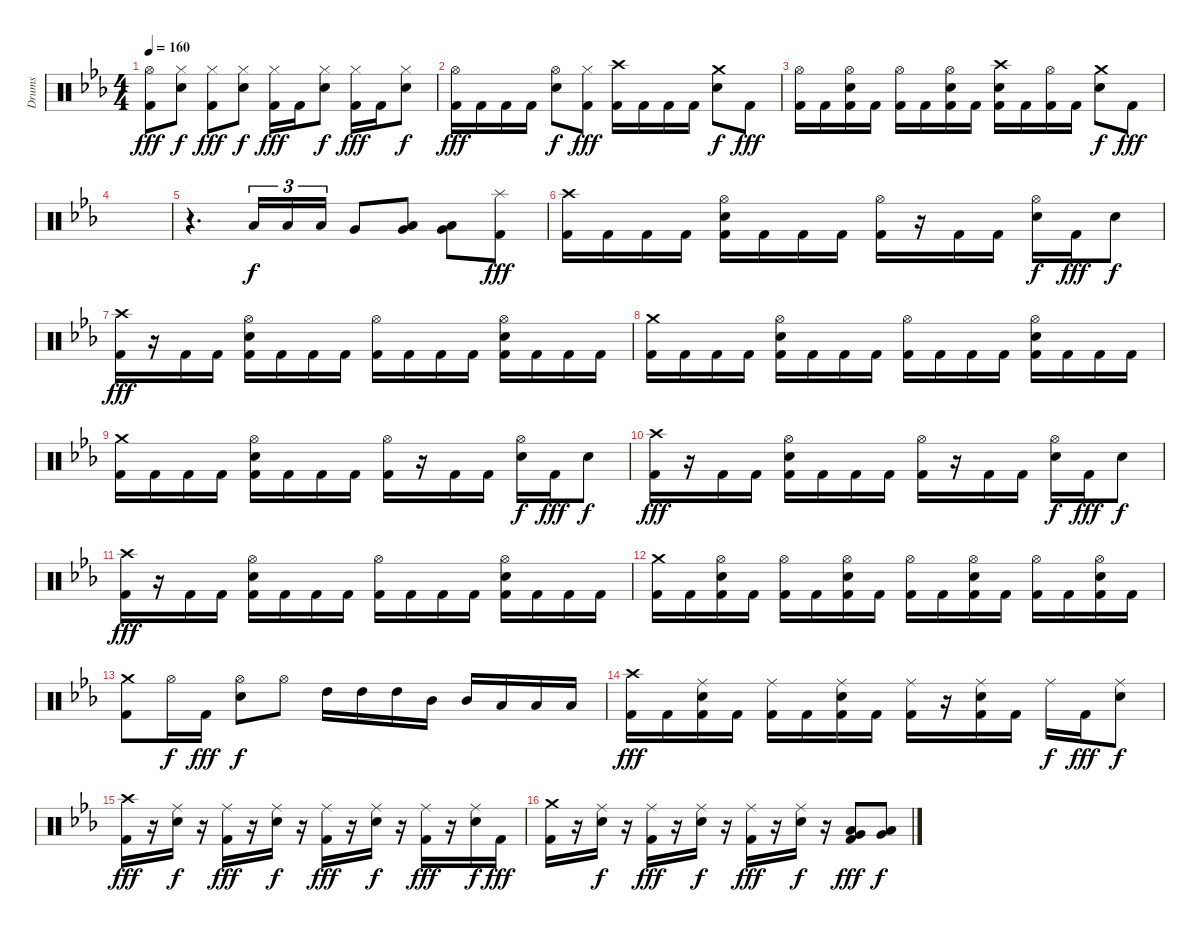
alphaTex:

\track ("Drums" "Drums") {instrument percussion}
\staff {score}
\articulation defaults
\ts (4 4)
\tempo 160
\clef neutral
\ks eb
("Hi-Hat (open)" "Kick (hit) 2").8{dy fff} ("Hi-Hat (closed)" "Electric Snare (hit)").8{dy f} ("Hi-Hat (closed)" "Kick (hit) 2").8{dy fff} ("Hi-Hat (closed)" "Electric Snare (hit)").8{dy f} ("Hi-Hat (closed)" "Kick (hit) 2").16{dy fff} "Kick (hit) 2".16 ("Hi-Hat (closed)" "Electric Snare (hit)").8{dy f} ("Hi-Hat (closed)" "Kick (hit) 2").16{dy fff} "Kick (hit) 2".16 ("Hi-Hat (closed)" "Electric Snare (hit)").8{dy f} |
("Hi-Hat (open)" "Kick (hit) 2").16{dy fff} "Kick (hit) 2".16 "Kick (hit) 2".16 "Kick (hit) 2".16 ("Hi-Hat (open)" "Electric Snare (hit)").8{dy f} ("Hi-Hat (closed)" "Kick (hit) 2").8{dy fff} ("Crash high (hit)" "Kick (hit) 2").16 "Kick (hit) 2".16 "Kick (hit) 2".16 "Kick (hit) 2".16 ("Crash medium (hit)" "Electric Snare (hit)").8{dy f} "Kick (hit) 2".8{dy fff} |
("Hi-Hat (open)" "Kick (hit) 2").16 "Kick (hit) 2".16 ("Hi-Hat (open)" "Electric Snare (hit)" "Kick (hit) 2").16 "Kick (hit) 2".16 ("Hi-Hat (open)" "Kick (hit) 2").16 "Kick (hit) 2".16 ("Hi-Hat (open)" "Electric Snare (hit)" "Kick (hit) 2").16 "Kick (hit) 2".16 ("Crash high (hit)" "Electric Snare (hit)" "Kick (hit) 2").16 "Kick (hit) 2".16 ("Hi-Hat (open)" "Kick (hit) 2").16 "Kick (hit) 2".16 ("Crash medium (hit)" "Electric Snare (hit)").8{dy f} "Kick (hit) 2".8{dy fff} |
|
r.4{d} "Low Tom (hit)".16{tu (3 2) dy f} "Low Tom (hit)".16{tu (3 2)} "Low Tom (hit)".16{tu (3 2)} "Very Low Tom (hit)".8 ("Very Low Tom (hit)" "Low Floor Tom (hit)").8 ("Very Low Tom (hit)" "Low Floor Tom (hit)").8 ("Splash (hit)" "Kick (hit) 2").8{dy fff} |
("Crash high (hit)" "Kick (hit) 2").16 "Kick (hit) 2".16 "Kick (hit) 2".16 "Kick (hit) 2".16 ("Hi-Hat (open)" "Electric Snare (hit)" "Kick (hit) 2").16 "Kick (hit) 2".16 "Kick (hit) 2".16 "Kick (hit) 2".16 ("Hi-Hat (open)" "Kick (hit) 2").16 r.16 "Kick (hit) 2".16 "Kick (hit) 2".16 ("Hi-Hat (open)" "Electric Snare (hit)").16{dy f} "Kick (hit) 2".16{dy fff} "Electric Snare (hit)".8{dy f} |
("Crash high (hit)" "Kick (hit) 2").16{dy fff} r.16 "Kick (hit) 2".16 "Kick (hit) 2".16 ("Hi-Hat (open)" "Electric Snare (hit)" "Kick (hit) 2").16 "Kick (hit) 2".16 "Kick (hit) 2".16 "Kick (hit) 2".16 ("Hi-Hat (open)" "Kick (hit) 2").16 "Kick (hit) 2".16 "Kick (hit) 2".16 "Kick (hit) 2".16 ("Hi-Hat (open)" "Electric Snare (hit)" "Kick (hit) 2").16 "Kick (hit) 2".16 "Kick (hit) 2".16 "Kick (hit) 2".16 |
("Crash medium (hit)" "Kick (hit) 2").16 "Kick (hit) 2".16 "Kick (hit) 2".16 "Kick (hit) 2".16 ("Hi-Hat (open)" "Electric Snare (hit)" "Kick (hit) 2").16 "Kick (hit) 2".16 "Kick (hit) 2".16 "Kick (hit) 2".16 ("Hi-Hat (open)" "Kick (hit) 2").16 "Kick (hit) 2".16 "Kick (hit) 2".16 "Kick (hit) 2".16 ("Hi-Hat (open)" "Electric Snare (hit)" "Kick (hit) 2").16 "Kick (hit) 2".16 "Kick (hit) 2".16 "Kick (hit) 2".16 |
("Crash medium (hit)" "Kick (hit) 2").16 "Kick (hit) 2".16 "Kick (hit) 2".16 "Kick (hit) 2".16 ("Hi-Hat (open)" "Electric Snare (hit)" "Kick (hit) 2").16 "Kick (hit) 2".16 "Kick (hit) 2".16 "Kick (hit) 2".16 ("Hi-Hat (open)" "Kick (hit) 2").16 r.16 "Kick (hit) 2".16 "Kick (hit) 2".16 ("Hi-Hat (open)" "Electric Snare (hit)").16{dy f} "Kick (hit) 2".16{dy fff} "Electric Snare (hit)".8{dy f} |
("Crash high (hit)" "Kick (hit) 2").16{dy fff} r.16 "Kick (hit) 2".16 "Kick (hit) 2".16 ("Hi-Hat (open)" "Electric Snare (hit)" "Kick (hit) 2").16 "Kick (hit) 2".16 "Kick (hit) 2".16 "Kick (hit) 2".16 ("Hi-Hat (open)" "Kick (hit) 2").16 r.16 "Kick (hit) 2".16 "Kick (hit) 2".16 ("Hi-Hat (open)" "Electric Snare (hit)").16{dy f} "Kick (hit) 2".16{dy fff} "Electric Snare (hit)".8{dy f} |
("Crash high (hit)" "Kick (hit) 2").16{dy fff} r.16 "Kick (hit) 2".16 "Kick (hit) 2".16 ("Hi-Hat (open)" "Electric Snare (hit)" "Kick (hit) 2").16 "Kick (hit) 2".16 "Kick (hit) 2".16 "Kick (hit) 2".16 ("Hi-Hat (open)" "Kick (hit) 2").16 "Kick (hit) 2".16 "Kick (hit) 2".16 "Kick (hit) 2".16 ("Hi-Hat (open)" "Electric Snare (hit)" "Kick (hit) 2").16 "Kick (hit) 2".16 "Kick (hit) 2".16 "Kick (hit) 2".16 |
("Crash medium (hit)" "Kick (hit) 2").16 "Kick (hit) 2".16 ("Hi-Hat (open)" "Electric Snare (hit)" "Kick (hit) 2").16 "Kick (hit) 2".16 ("Hi-Hat (open)" "Kick (hit) 2").16 "Kick (hit) 2".16 ("Hi-Hat (open)" "Electric Snare (hit)" "Kick (hit) 2").16 "Kick (hit) 2".16 ("Hi-Hat (open)" "Kick (hit) 2").16 "Kick (hit) 2".16 ("Hi-Hat (open)" "Electric Snare (hit)" "Kick (hit) 2").16 "Kick (hit) 2".16 ("Hi-Hat (open)" "Kick (hit) 2").16 "Kick (hit) 2".16 ("Hi-Hat (open)" "Electric Snare (hit)" "Kick (hit) 2").16 "Kick (hit) 2".16 |
("Crash medium (hit)" "Kick (hit) 2").8 "Hi-Hat (open)".16{dy f} "Kick (hit) 2".16{dy fff} ("Hi-Hat (open)" "Electric Snare (hit)").8{dy f} "Hi-Hat (open)".8 "High Tom (hit)".16 "High Tom (hit)".16 "High Tom (hit)".16 "Mid Tom (hit)".16 "Mid Tom (hit)".16 "Low Tom (hit)".16 "Low Tom (hit)".16 "Low Tom (hit)".16 |
("Crash high (hit)" "Kick (hit) 2").16{dy fff} "Kick (hit) 2".16 ("Ride (middle)" "Electric Snare (hit)" "Kick (hit) 2").16 "Kick (hit) 2".16 ("Ride (middle)" "Kick (hit) 2").16 "Kick (hit) 2".16 ("Ride (middle)" "Electric Snare (hit)" "Kick (hit) 2").16 "Kick (hit) 2".16 ("Ride (middle)" "Kick (hit) 2").16 r.16 ("Ride (middle)" "Electric Snare (hit)" "Kick (hit) 2").16 "Kick (hit) 2".16 "Ride (middle)".16{dy f} "Kick (hit) 2".16{dy fff} ("Ride (middle)" "Electric Snare (hit)").8{dy f} |
("Crash high (hit)" "Kick (hit) 2").16{dy fff} r.16 ("Ride (middle)" "Electric Snare (hit)").16{dy f} r.16 ("Ride (middle)" "Kick (hit) 2").16{dy fff} r.16 ("Ride (middle)" "Electric Snare (hit)").16{dy f} r.16 ("Ride (middle)" "Kick (hit) 2").16{dy fff} r.16 ("Ride (middle)" "Electric Snare (hit)").16{dy f} r.16 ("Ride (middle)" "Kick (hit) 2").16{dy fff} r.16 ("Ride (middle)" "Electric Snare (hit)").16{dy f} "Kick (hit) 2".16{dy fff} |
("Crash medium (hit)" "Kick (hit) 2").16 r.16 ("Ride (middle)" "Electric Snare (hit)").16{dy f} r.16 ("Ride (middle)" "Kick (hit) 2").16{dy fff} r.16 ("Ride (middle)" "Electric Snare (hit)").16{dy f} r.16 ("Ride (middle)" "Kick (hit) 2").16{dy fff} r.16 ("Ride (middle)" "Electric Snare (hit)").16{dy f} r.16 ("Low Tom (hit)" "Very Low Tom (hit)" "Kick (hit) 2").8{dy fff} ("Low Tom (hit)" "Very Low Tom (hit)").8{dy f}
